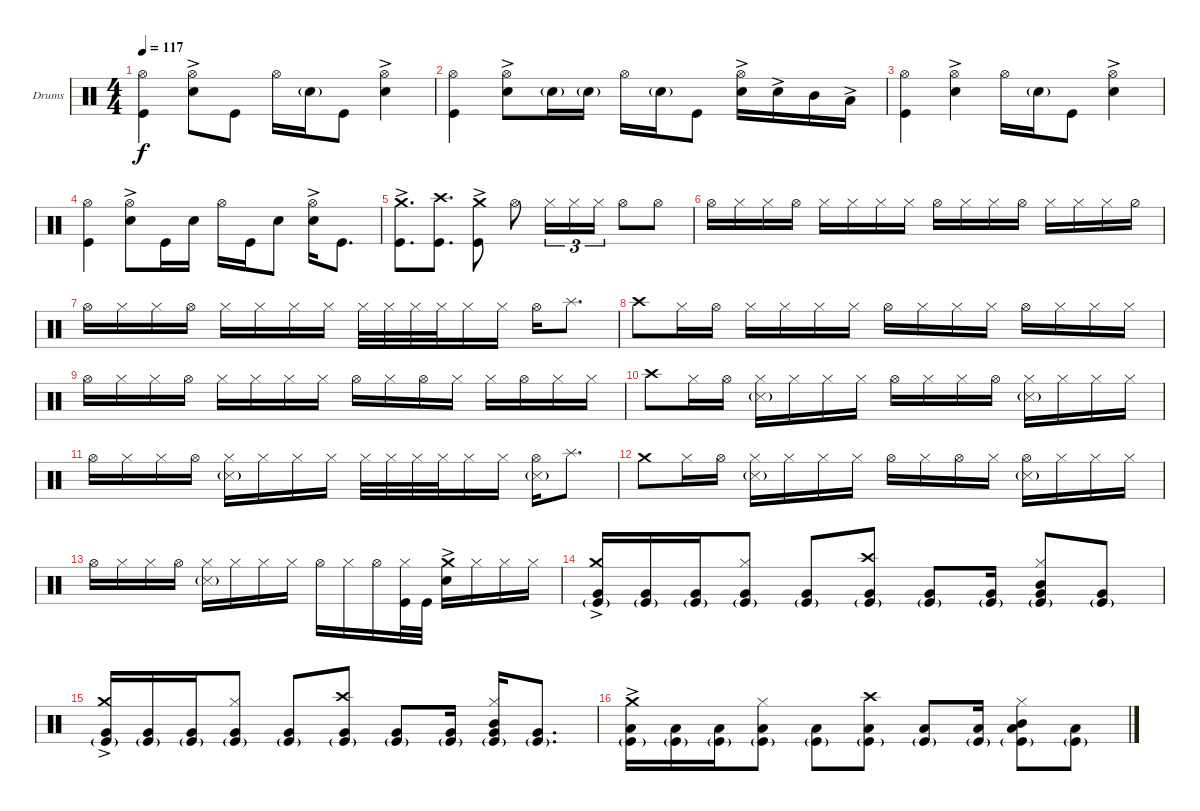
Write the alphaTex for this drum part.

\bracketExtendMode groupsimilarinstruments
\firstSystemTrackNameOrientation horizontal
\otherSystemsTrackNameOrientation horizontal
\track ("Drumkit" "Drums") {instrument percussion}
\staff {score}
\articulation defaults
\ts (4 4)
\tempo 117
\clef neutral
\ks c
("Kick (hit)" "Hi-Hat (open)").4{dy f} ("Hi-Hat (open)" "Snare (hit) 2"{ac}).8 "Kick (hit)".8 "Hi-Hat (open)".16 "Snare (hit) 2"{g}.16 "Kick (hit)".8 ("Hi-Hat (open)" "Snare (hit) 2"{ac}).4 |
("Kick (hit)" "Hi-Hat (open)").4 ("Snare (hit) 2"{ac} "Hi-Hat (open)").8 "Snare (hit) 2"{g}.16 "Snare (hit) 2"{g}.16 "Hi-Hat (open)".16 "Snare (hit) 2"{g}.16 "Kick (hit)".8 ("Snare (hit) 2"{ac} "Hi-Hat (open)").16 "Snare (hit) 2"{ac}.16 "Mid Tom (hit)".16 "Low Tom (hit)"{ac}.16 |
("Kick (hit)" "Hi-Hat (open)").4 ("Hi-Hat (open)" "Snare (hit) 2"{ac}).4 "Hi-Hat (open)".16 "Snare (hit) 2"{g}.16 "Kick (hit)".8 ("Hi-Hat (open)" "Snare (hit) 2"{ac}).4 |
("Kick (hit)" "Hi-Hat (open)").4 ("Snare (hit) 2"{ac} "Hi-Hat (open)").8 "Kick (hit)".16 "Snare (hit) 2".16 "Hi-Hat (open)".16 "Kick (hit)".16 "Snare (hit) 2".8 ("Snare (hit) 2"{ac} "Hi-Hat (open)").16 "Kick (hit)".8{d} |
("Kick (hit)" "Crash medium (hit)"{ac}).8{d} ("Kick (hit)" "Crash high (hit)").8{d} ("Kick (hit)" "Crash medium (hit)"{ac}).8 "Hi-Hat (open)".8 "Hi-Hat (closed)".16{tu (3 2)} "Hi-Hat (closed)".16{tu (3 2)} "Hi-Hat (closed)".16{tu (3 2)} "Hi-Hat (open)".8 "Hi-Hat (open)".8 |
"Hi-Hat (open)".16 "Hi-Hat (closed)".16 "Hi-Hat (closed)".16 "Hi-Hat (open)".16 "Hi-Hat (closed)".16 "Hi-Hat (closed)".16 "Hi-Hat (closed)".16 "Hi-Hat (closed)".16 "Hi-Hat (open)".16 "Hi-Hat (closed)".16 "Hi-Hat (closed)".16 "Hi-Hat (open)".16 "Hi-Hat (closed)".16 "Hi-Hat (closed)".16 "Hi-Hat (closed)".16 "Hi-Hat (half)".16 |
"Hi-Hat (open)".16 "Hi-Hat (closed)".16 "Hi-Hat (closed)".16 "Hi-Hat (open)".16 "Hi-Hat (closed)".16 "Hi-Hat (closed)".16 "Hi-Hat (closed)".16 "Hi-Hat (closed)".16 "Hi-Hat (closed)".32 "Hi-Hat (closed)".32 "Hi-Hat (closed)".32 "Hi-Hat (closed)".32 "Hi-Hat (closed)".16 "Hi-Hat (closed)".16 "Hi-Hat (open)".16 "Splash (hit)".8{d} |
"Crash high (hit)".8 "Hi-Hat (closed)".16 "Hi-Hat (open)".16 "Hi-Hat (closed)".16 "Hi-Hat (closed)".16 "Hi-Hat (closed)".16 "Hi-Hat (closed)".16 "Hi-Hat (open)".16 "Hi-Hat (closed)".16 "Hi-Hat (closed)".16 "Hi-Hat (closed)".16 "Hi-Hat (open)".16 "Hi-Hat (closed)".16 "Hi-Hat (closed)".16 "Hi-Hat (closed)".16 |
"Hi-Hat (open)".16 "Hi-Hat (closed)".16 "Hi-Hat (closed)".16 "Hi-Hat (open)".16 "Hi-Hat (closed)".16 "Hi-Hat (closed)".16 "Hi-Hat (closed)".16 "Hi-Hat (closed)".16 "Hi-Hat (open)".16 "Hi-Hat (closed)".16 "Hi-Hat (open)".16 "Hi-Hat (closed)".16 "Hi-Hat (closed)".16 "Hi-Hat (open)".16 "Hi-Hat (closed)".16 "Hi-Hat (closed)".16 |
"Crash high (hit)".8 "Hi-Hat (closed)".16 "Hi-Hat (open)".16 ("Hi-Hat (closed)" "Snare (side stick) 3"{g}).16 "Hi-Hat (closed)".16 "Hi-Hat (closed)".16 "Hi-Hat (closed)".16 "Hi-Hat (open)".16 "Hi-Hat (closed)".16 "Hi-Hat (closed)".16 "Hi-Hat (open)".16 ("Hi-Hat (closed)" "Snare (side stick) 3"{g}).16 "Hi-Hat (closed)".16 "Hi-Hat (closed)".16 "Hi-Hat (closed)".16 |
"Hi-Hat (open)".16 "Hi-Hat (closed)".16 "Hi-Hat (closed)".16 "Hi-Hat (open)".16 ("Hi-Hat (closed)" "Snare (side stick) 3"{g}).16 "Hi-Hat (closed)".16 "Hi-Hat (closed)".16 "Hi-Hat (closed)".16 "Hi-Hat (closed)".32 "Hi-Hat (closed)".32 "Hi-Hat (closed)".32 "Hi-Hat (closed)".32 "Hi-Hat (closed)".16 "Hi-Hat (closed)".16 ("Hi-Hat (open)" "Snare (side stick) 3"{g}).16 "Splash (hit)".8{d} |
"Crash medium (hit)".8 "Hi-Hat (closed)".16 "Hi-Hat (open)".16 ("Hi-Hat (closed)" "Snare (side stick) 3"{g}).16 "Hi-Hat (closed)".16 "Hi-Hat (closed)".16 "Hi-Hat (closed)".16 "Hi-Hat (open)".16 "Hi-Hat (closed)".16 "Hi-Hat (open)".16 "Hi-Hat (closed)".16 ("Hi-Hat (open)" "Snare (side stick) 3"{g}).16 "Hi-Hat (closed)".16 "Hi-Hat (closed)".16 "Hi-Hat (closed)".16 |
"Hi-Hat (open)".16 "Hi-Hat (closed)".16 "Hi-Hat (closed)".16 "Hi-Hat (open)".16 ("Hi-Hat (closed)" "Snare (side stick) 3"{g}).16 "Hi-Hat (closed)".16 "Hi-Hat (closed)".16 "Hi-Hat (closed)".16 "Hi-Hat (open)".16 "Hi-Hat (closed)".16 "Hi-Hat (open)".16 ("Hi-Hat (closed)" "Kick (hit)").32 "Kick (hit)".32 ("Snare (hit) 2" "Crash medium (hit)"{ac}).16 "Hi-Hat (closed)".16 "Hi-Hat (closed)".16 "Hi-Hat (closed)".16 |
("Kick (hit)"{g} "Very Low Tom (hit)" "Crash medium (hit)"{ac}).16 ("Kick (hit)"{g} "Very Low Tom (hit)").16 ("Kick (hit)"{g} "Very Low Tom (hit)").16 ("Kick (hit)"{g} "Very Low Tom (hit)" "Hi-Hat (closed)").8 ("Kick (hit)"{g} "Very Low Tom (hit)").8 ("Kick (hit)"{g} "Very Low Tom (hit)" "Crash high (hit)").8 ("Kick (hit)"{g} "Very Low Tom (hit)").8 ("Kick (hit)"{g} "Very Low Tom (hit)").16 ("Kick (hit)"{g} "Very Low Tom (hit)" "Mid Tom (hit)" "Hi-Hat (closed)").8 ("Kick (hit)"{g} "Very Low Tom (hit)").8 |
("Kick (hit)"{g} "Very Low Tom (hit)" "Crash medium (hit)"{ac}).16 ("Kick (hit)"{g} "Very Low Tom (hit)").16 ("Kick (hit)"{g} "Very Low Tom (hit)").16 ("Kick (hit)"{g} "Very Low Tom (hit)" "Hi-Hat (closed)").8 ("Kick (hit)"{g} "Very Low Tom (hit)").8 ("Kick (hit)"{g} "Very Low Tom (hit)" "Crash high (hit)").8 ("Kick (hit)"{g} "Very Low Tom (hit)").8 ("Kick (hit)"{g} "Very Low Tom (hit)").16 ("Kick (hit)"{g} "Very Low Tom (hit)" "Mid Tom (hit)" "Hi-Hat (closed)").16 ("Kick (hit)"{g} "Very Low Tom (hit)").8{d} |
("Kick (hit)"{g} "Low Tom (hit)" "Crash medium (hit)"{ac}).16 ("Kick (hit)"{g} "Low Tom (hit)").16 ("Kick (hit)"{g} "Low Tom (hit)").16 ("Kick (hit)"{g} "Low Tom (hit)" "Hi-Hat (closed)").8 ("Kick (hit)"{g} "Low Tom (hit)").8 ("Kick (hit)"{g} "Low Tom (hit)" "Crash high (hit)").8 ("Kick (hit)"{g} "Low Tom (hit)").8 ("Kick (hit)"{g} "Low Tom (hit)").16 ("Kick (hit)"{g} "Low Tom (hit)" "Mid Tom (hit)" "Hi-Hat (closed)").8 ("Kick (hit)"{g} "Low Tom (hit)").8
